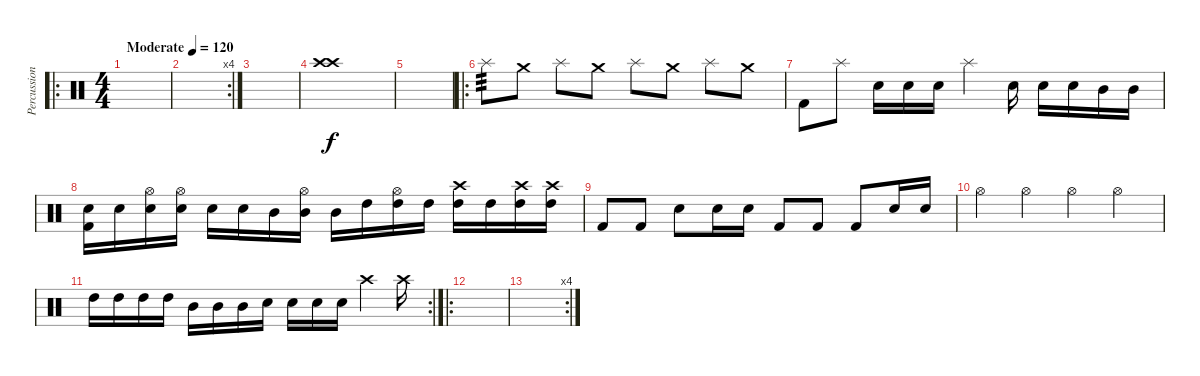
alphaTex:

\track ("Percussion" "Percussion") {instrument percussion}
\staff {score}
\articulation defaults
\ro
\ts (4 4)
\tempo (120 "Moderate")
\clef neutral
\ks c
|
\rc 4
|
|
("Crash high (hit)" "Crash high (hit)").1{volume 16} |
|
\ro "Splash (hit)".8{tp 3 volume 16} "Crash medium (hit)".8 "Splash (hit)".8 "Crash medium (hit)".8 "Splash (hit)".8 "Crash medium (hit)".8 "Splash (hit)".8 "Crash medium (hit)".8
|
"Kick (hit) 2".8 "Splash (hit)".8 "Snare (hit) 2".16 "Snare (hit) 2".16 "Snare (hit) 2".16 "Splash (hit)".4 "Snare (hit) 2".16 "Snare (hit) 2".16 "Snare (hit) 2".16 "Mid Tom (hit)".16 "Mid Tom (hit)".16 |
("Snare (hit) 2" "Kick (hit) 2").16{volume 14} "Snare (hit) 2".16 ("Snare (hit) 2" "Hi-Hat (open)").16 ("Electric Snare (hit)" "Hi-Hat (open)").16 "Electric Snare (hit)".16 "Electric Snare (hit)".16 "Mid Tom (hit)".16 ("Mid Tom (hit)" "Hi-Hat (open)").16 "Mid Tom (hit)".16 "High Tom (hit)".16 ("High Tom (hit)" "Hi-Hat (open)").16 "High Tom (hit)".16 ("High Tom (hit)" "Crash high (hit)").16 "High Tom (hit)".16 ("High Tom (hit)" "Crash high (hit)").16 ("High Tom (hit)" "Crash high (hit)").16 |
"Kick (hit) 2".8 "Kick (hit) 2".8 "Snare (hit) 2".8 "Snare (hit) 2".16 "Snare (hit) 2".16 "Kick (hit) 2".8 "Kick (hit) 2".8 "Kick (hit) 2".8 "Snare (hit) 2".16 "Snare (hit) 2".16 |
"Hi-Hat (open)".4 "Hi-Hat (open)".4 "Hi-Hat (open)".4 "Hi-Hat (open)".4 |
\rc 2 "High Tom (hit)".16 "High Tom (hit)".16 "High Tom (hit)".16 "High Tom (hit)".16 "Mid Tom (hit)".16 "Mid Tom (hit)".16 "Mid Tom (hit)".16 "Snare (hit) 2".16 "Snare (hit) 2".16 "Snare (hit) 2".16 "Electric Snare (hit)".16 "Crash high (hit)".4 "Crash high (hit)".16
|
\ro
|
\rc 4
